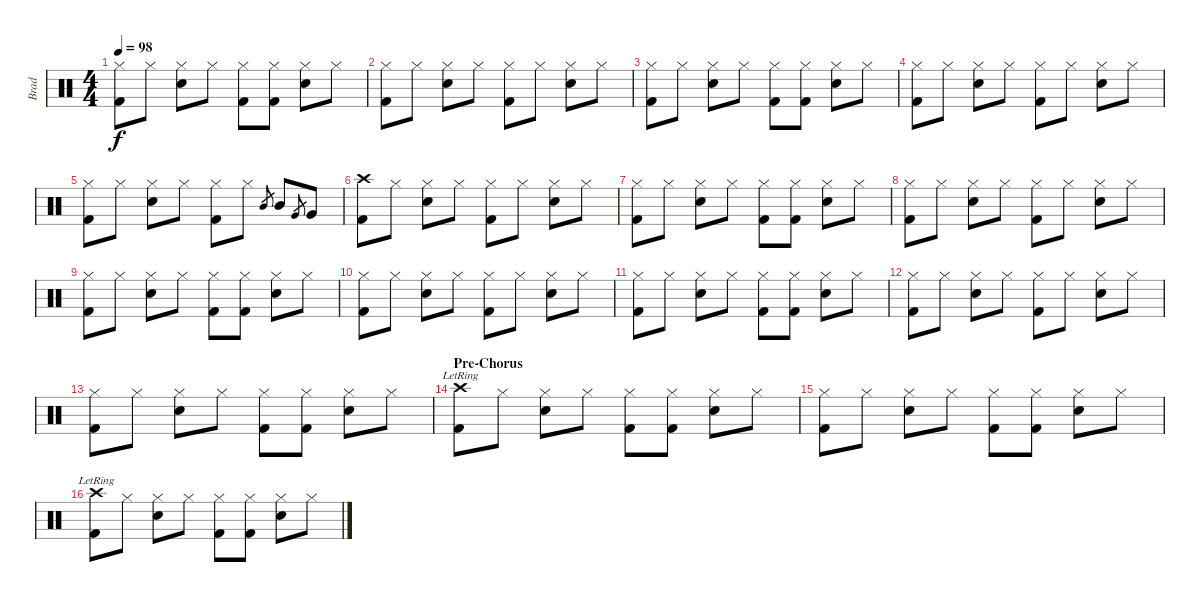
\track ("Brad" "Brad") {instrument percussion}
\staff {score}
\articulation defaults
\ts (4 4)
\tempo 98
\clef neutral
\ks c
("Hi-Hat (closed)" "Kick (hit) 2").8{dy f} "Hi-Hat (closed)".8 ("Hi-Hat (closed)" "Snare (hit) 2").8 "Hi-Hat (closed)".8 ("Hi-Hat (closed)" "Kick (hit) 2").8 ("Hi-Hat (closed)" "Kick (hit) 2").8 ("Hi-Hat (closed)" "Snare (hit) 2").8 "Hi-Hat (closed)".8 |
("Hi-Hat (closed)" "Kick (hit) 2").8 "Hi-Hat (closed)".8 ("Hi-Hat (closed)" "Snare (hit) 2").8 "Hi-Hat (closed)".8 ("Hi-Hat (closed)" "Kick (hit) 2").8 "Hi-Hat (closed)".8 ("Hi-Hat (closed)" "Snare (hit) 2").8 "Hi-Hat (closed)".8 |
("Hi-Hat (closed)" "Kick (hit) 2").8 "Hi-Hat (closed)".8 ("Hi-Hat (closed)" "Snare (hit) 2").8 "Hi-Hat (closed)".8 ("Hi-Hat (closed)" "Kick (hit) 2").8 ("Hi-Hat (closed)" "Kick (hit) 2").8 ("Hi-Hat (closed)" "Snare (hit) 2").8 "Hi-Hat (closed)".8 |
("Hi-Hat (closed)" "Kick (hit) 2").8 "Hi-Hat (closed)".8 ("Hi-Hat (closed)" "Snare (hit) 2").8 "Hi-Hat (closed)".8 ("Hi-Hat (closed)" "Kick (hit) 2").8 "Hi-Hat (closed)".8 ("Hi-Hat (closed)" "Snare (hit) 2").8 "Hi-Hat (closed)".8 |
("Hi-Hat (closed)" "Kick (hit) 2").8 "Hi-Hat (closed)".8 ("Hi-Hat (closed)" "Snare (hit) 2").8 "Hi-Hat (closed)".8 ("Hi-Hat (closed)" "Kick (hit) 2").8 "Hi-Hat (closed)".8 "Mid Tom (hit)".8{gr} "Mid Tom (hit)".8 "Very Low Tom (hit)".8{gr} "Very Low Tom (hit)".8 |
("Crash high (hit)" "Kick (hit) 2").8 "Hi-Hat (closed)".8 ("Hi-Hat (closed)" "Snare (hit) 2").8 "Hi-Hat (closed)".8 ("Hi-Hat (closed)" "Kick (hit) 2").8 "Hi-Hat (closed)".8 ("Hi-Hat (closed)" "Snare (hit) 2").8 "Hi-Hat (closed)".8 |
("Hi-Hat (closed)" "Kick (hit) 2").8 "Hi-Hat (closed)".8 ("Hi-Hat (closed)" "Snare (hit) 2").8 "Hi-Hat (closed)".8 ("Hi-Hat (closed)" "Kick (hit) 2").8 ("Hi-Hat (closed)" "Kick (hit) 2").8 ("Hi-Hat (closed)" "Snare (hit) 2").8 "Hi-Hat (closed)".8 |
("Hi-Hat (closed)" "Kick (hit) 2").8 "Hi-Hat (closed)".8 ("Hi-Hat (closed)" "Snare (hit) 2").8 "Hi-Hat (closed)".8 ("Hi-Hat (closed)" "Kick (hit) 2").8 "Hi-Hat (closed)".8 ("Hi-Hat (closed)" "Snare (hit) 2").8 "Hi-Hat (closed)".8 |
("Hi-Hat (closed)" "Kick (hit) 2").8 "Hi-Hat (closed)".8 ("Hi-Hat (closed)" "Snare (hit) 2").8 "Hi-Hat (closed)".8 ("Hi-Hat (closed)" "Kick (hit) 2").8 ("Hi-Hat (closed)" "Kick (hit) 2").8 ("Hi-Hat (closed)" "Snare (hit) 2").8 "Hi-Hat (closed)".8 |
("Hi-Hat (closed)" "Kick (hit) 2").8 "Hi-Hat (closed)".8 ("Hi-Hat (closed)" "Snare (hit) 2").8 "Hi-Hat (closed)".8 ("Hi-Hat (closed)" "Kick (hit) 2").8 "Hi-Hat (closed)".8 ("Hi-Hat (closed)" "Snare (hit) 2").8 "Hi-Hat (closed)".8 |
("Hi-Hat (closed)" "Kick (hit) 2").8 "Hi-Hat (closed)".8 ("Hi-Hat (closed)" "Snare (hit) 2").8 "Hi-Hat (closed)".8 ("Hi-Hat (closed)" "Kick (hit) 2").8 ("Hi-Hat (closed)" "Kick (hit) 2").8 ("Hi-Hat (closed)" "Snare (hit) 2").8 "Hi-Hat (closed)".8 |
("Hi-Hat (closed)" "Kick (hit) 2").8 "Hi-Hat (closed)".8 ("Hi-Hat (closed)" "Snare (hit) 2").8 "Hi-Hat (closed)".8 ("Hi-Hat (closed)" "Kick (hit) 2").8 "Hi-Hat (closed)".8 ("Hi-Hat (closed)" "Snare (hit) 2").8 "Hi-Hat (closed)".8 |
("Hi-Hat (closed)" "Kick (hit) 2").8 "Hi-Hat (closed)".8 ("Hi-Hat (closed)" "Snare (hit) 2").8 "Hi-Hat (closed)".8 ("Hi-Hat (closed)" "Kick (hit) 2").8 ("Hi-Hat (closed)" "Kick (hit) 2").8 ("Hi-Hat (closed)" "Snare (hit) 2").8 "Hi-Hat (closed)".8 |
\section ("" "Pre-Chorus")
("Crash high (hit)"{lr} "Kick (hit) 2").8 "Hi-Hat (closed)".8 ("Hi-Hat (closed)" "Snare (hit) 2").8 "Hi-Hat (closed)".8 ("Hi-Hat (closed)" "Kick (hit) 2").8 ("Hi-Hat (closed)" "Kick (hit) 2").8 ("Hi-Hat (closed)" "Snare (hit) 2").8 "Hi-Hat (closed)".8 |
("Hi-Hat (closed)" "Kick (hit) 2").8 "Hi-Hat (closed)".8 ("Hi-Hat (closed)" "Snare (hit) 2").8 "Hi-Hat (closed)".8 ("Hi-Hat (closed)" "Kick (hit) 2").8 ("Hi-Hat (closed)" "Kick (hit) 2").8 ("Hi-Hat (closed)" "Snare (hit) 2").8 "Hi-Hat (closed)".8 |
("Crash high (hit)"{lr} "Kick (hit) 2").8 "Hi-Hat (closed)".8 ("Hi-Hat (closed)" "Snare (hit) 2").8 "Hi-Hat (closed)".8 ("Hi-Hat (closed)" "Kick (hit) 2").8 ("Hi-Hat (closed)" "Kick (hit) 2").8 ("Hi-Hat (closed)" "Snare (hit) 2").8 "Hi-Hat (closed)".8
